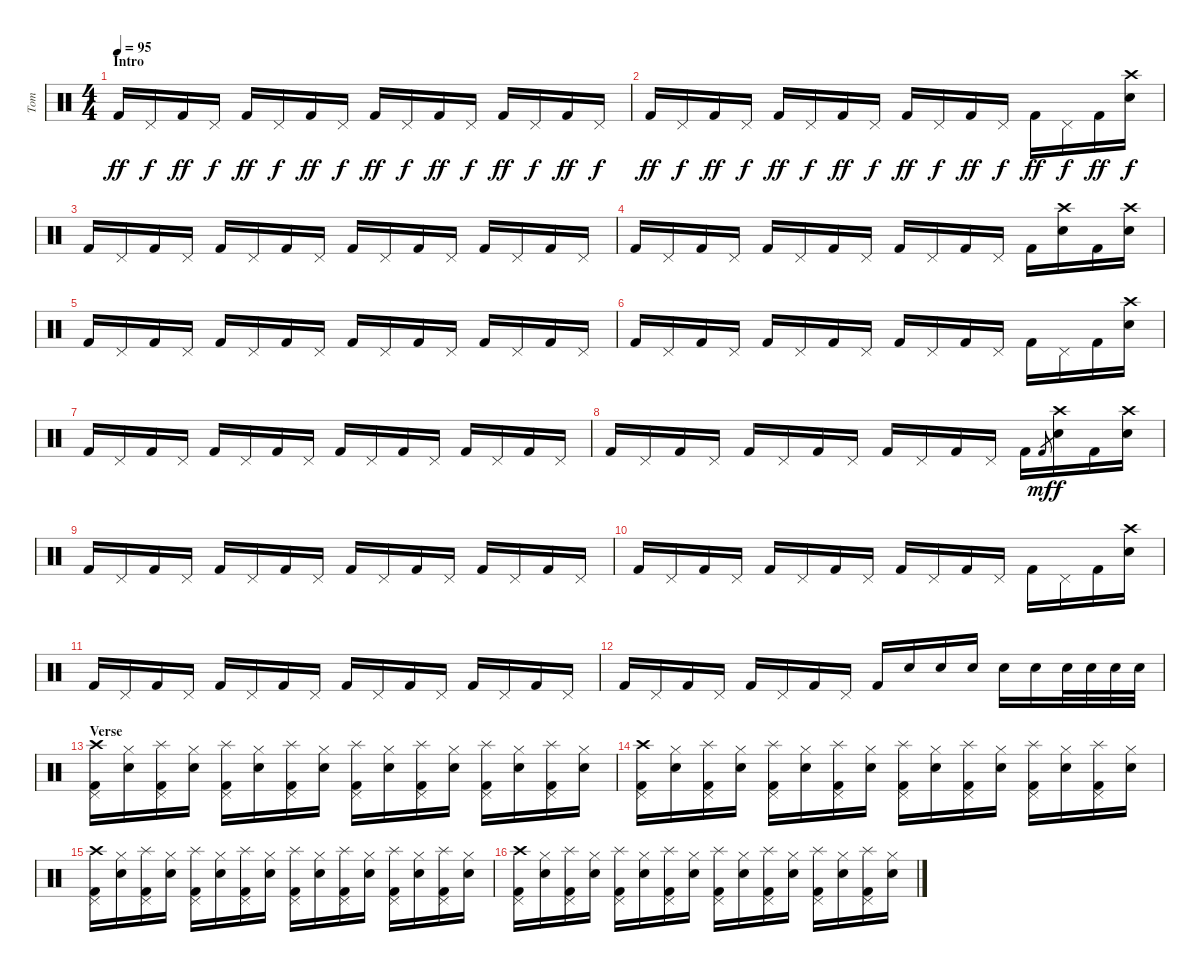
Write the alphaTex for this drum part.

\track ("Tom" "Tom") {instrument percussion}
\staff {score}
\articulation defaults
\ts (4 4)
\section ("" "Intro")
\tempo 95
\clef neutral
\ks c "Kick (hit) 2".16{dy ff} "Pedal Hi-Hat (hit)".16{dy f} "Kick (hit) 2".16{dy ff} "Pedal Hi-Hat (hit)".16{dy f} "Kick (hit) 2".16{dy ff} "Pedal Hi-Hat (hit)".16{dy f} "Kick (hit) 2".16{dy ff} "Pedal Hi-Hat (hit)".16{dy f} "Kick (hit) 2".16{dy ff} "Pedal Hi-Hat (hit)".16{dy f} "Kick (hit) 2".16{dy ff} "Pedal Hi-Hat (hit)".16{dy f} "Kick (hit) 2".16{dy ff} "Pedal Hi-Hat (hit)".16{dy f} "Kick (hit) 2".16{dy ff} "Pedal Hi-Hat (hit)".16{dy f}
|
"Kick (hit) 2".16{dy ff} "Pedal Hi-Hat (hit)".16{dy f} "Kick (hit) 2".16{dy ff} "Pedal Hi-Hat (hit)".16{dy f} "Kick (hit) 2".16{dy ff} "Pedal Hi-Hat (hit)".16{dy f} "Kick (hit) 2".16{dy ff} "Pedal Hi-Hat (hit)".16{dy f} "Kick (hit) 2".16{dy ff} "Pedal Hi-Hat (hit)".16{dy f} "Kick (hit) 2".16{dy ff} "Pedal Hi-Hat (hit)".16{dy f} "Kick (hit) 2".16{dy ff} "Pedal Hi-Hat (hit)".16{dy f} "Kick (hit) 2".16{dy ff} ("Crash high (hit)" "Electric Snare (hit)").16{dy f} |
"Kick (hit) 2".16 "Pedal Hi-Hat (hit)".16 "Kick (hit) 2".16 "Pedal Hi-Hat (hit)".16 "Kick (hit) 2".16 "Pedal Hi-Hat (hit)".16 "Kick (hit) 2".16 "Pedal Hi-Hat (hit)".16 "Kick (hit) 2".16 "Pedal Hi-Hat (hit)".16 "Kick (hit) 2".16 "Pedal Hi-Hat (hit)".16 "Kick (hit) 2".16 "Pedal Hi-Hat (hit)".16 "Kick (hit) 2".16 "Pedal Hi-Hat (hit)".16 |
"Kick (hit) 2".16 "Pedal Hi-Hat (hit)".16 "Kick (hit) 2".16 "Pedal Hi-Hat (hit)".16 "Kick (hit) 2".16 "Pedal Hi-Hat (hit)".16 "Kick (hit) 2".16 "Pedal Hi-Hat (hit)".16 "Kick (hit) 2".16 "Pedal Hi-Hat (hit)".16 "Kick (hit) 2".16 "Pedal Hi-Hat (hit)".16 "Kick (hit) 2".16 ("Crash high (hit)" "Electric Snare (hit)").16 "Kick (hit) 2".16 ("Crash high (hit)" "Electric Snare (hit)").16 |
"Kick (hit) 2".16 "Pedal Hi-Hat (hit)".16 "Kick (hit) 2".16 "Pedal Hi-Hat (hit)".16 "Kick (hit) 2".16 "Pedal Hi-Hat (hit)".16 "Kick (hit) 2".16 "Pedal Hi-Hat (hit)".16 "Kick (hit) 2".16 "Pedal Hi-Hat (hit)".16 "Kick (hit) 2".16 "Pedal Hi-Hat (hit)".16 "Kick (hit) 2".16 "Pedal Hi-Hat (hit)".16 "Kick (hit) 2".16 "Pedal Hi-Hat (hit)".16 |
"Kick (hit) 2".16 "Pedal Hi-Hat (hit)".16 "Kick (hit) 2".16 "Pedal Hi-Hat (hit)".16 "Kick (hit) 2".16 "Pedal Hi-Hat (hit)".16 "Kick (hit) 2".16 "Pedal Hi-Hat (hit)".16 "Kick (hit) 2".16 "Pedal Hi-Hat (hit)".16 "Kick (hit) 2".16 "Pedal Hi-Hat (hit)".16 "Kick (hit) 2".16 "Pedal Hi-Hat (hit)".16 "Kick (hit) 2".16 ("Crash high (hit)" "Electric Snare (hit)").16 |
"Kick (hit) 2".16 "Pedal Hi-Hat (hit)".16 "Kick (hit) 2".16 "Pedal Hi-Hat (hit)".16 "Kick (hit) 2".16 "Pedal Hi-Hat (hit)".16 "Kick (hit) 2".16 "Pedal Hi-Hat (hit)".16 "Kick (hit) 2".16 "Pedal Hi-Hat (hit)".16 "Kick (hit) 2".16 "Pedal Hi-Hat (hit)".16 "Kick (hit) 2".16 "Pedal Hi-Hat (hit)".16 "Kick (hit) 2".16 "Pedal Hi-Hat (hit)".16 |
"Kick (hit) 2".16 "Pedal Hi-Hat (hit)".16 "Kick (hit) 2".16 "Pedal Hi-Hat (hit)".16 "Kick (hit) 2".16 "Pedal Hi-Hat (hit)".16 "Kick (hit) 2".16 "Pedal Hi-Hat (hit)".16 "Kick (hit) 2".16 "Pedal Hi-Hat (hit)".16 "Kick (hit) 2".16 "Pedal Hi-Hat (hit)".16 "Kick (hit) 2".16 "Kick (hit) 2".8{gr dy mf} ("Crash high (hit)" "Electric Snare (hit)").16{dy f} "Kick (hit) 2".16 ("Crash high (hit)" "Electric Snare (hit)").16 |
"Kick (hit) 2".16 "Pedal Hi-Hat (hit)".16 "Kick (hit) 2".16 "Pedal Hi-Hat (hit)".16 "Kick (hit) 2".16 "Pedal Hi-Hat (hit)".16 "Kick (hit) 2".16 "Pedal Hi-Hat (hit)".16 "Kick (hit) 2".16 "Pedal Hi-Hat (hit)".16 "Kick (hit) 2".16 "Pedal Hi-Hat (hit)".16 "Kick (hit) 2".16 "Pedal Hi-Hat (hit)".16 "Kick (hit) 2".16 "Pedal Hi-Hat (hit)".16 |
"Kick (hit) 2".16 "Pedal Hi-Hat (hit)".16 "Kick (hit) 2".16 "Pedal Hi-Hat (hit)".16 "Kick (hit) 2".16 "Pedal Hi-Hat (hit)".16 "Kick (hit) 2".16 "Pedal Hi-Hat (hit)".16 "Kick (hit) 2".16 "Pedal Hi-Hat (hit)".16 "Kick (hit) 2".16 "Pedal Hi-Hat (hit)".16 "Kick (hit) 2".16 "Pedal Hi-Hat (hit)".16 "Kick (hit) 2".16 ("Crash high (hit)" "Electric Snare (hit)").16 |
"Kick (hit) 2".16 "Pedal Hi-Hat (hit)".16 "Kick (hit) 2".16 "Pedal Hi-Hat (hit)".16 "Kick (hit) 2".16 "Pedal Hi-Hat (hit)".16 "Kick (hit) 2".16 "Pedal Hi-Hat (hit)".16 "Kick (hit) 2".16 "Pedal Hi-Hat (hit)".16 "Kick (hit) 2".16 "Pedal Hi-Hat (hit)".16 "Kick (hit) 2".16 "Pedal Hi-Hat (hit)".16 "Kick (hit) 2".16 "Pedal Hi-Hat (hit)".16 |
"Kick (hit) 2".16 "Pedal Hi-Hat (hit)".16 "Kick (hit) 2".16 "Pedal Hi-Hat (hit)".16 "Kick (hit) 2".16 "Pedal Hi-Hat (hit)".16 "Kick (hit) 2".16 "Pedal Hi-Hat (hit)".16 "Kick (hit) 2".16 "Electric Snare (hit)".16 "Electric Snare (hit)".16 "Electric Snare (hit)".16 "Electric Snare (hit)".16 "Electric Snare (hit)".16 "Electric Snare (hit)".32 "Electric Snare (hit)".32 "Electric Snare (hit)".32 "Electric Snare (hit)".32 |
\section ("" "Verse")
("Crash high (hit)" "Pedal Hi-Hat (hit)" "Kick (hit) 2").16 ("Hi-Hat (closed)" "Electric Snare (hit)").16 ("Splash (hit)" "Pedal Hi-Hat (hit)" "Kick (hit) 2").16 ("Hi-Hat (closed)" "Electric Snare (hit)").16 ("Splash (hit)" "Pedal Hi-Hat (hit)" "Kick (hit) 2").16 ("Hi-Hat (closed)" "Electric Snare (hit)").16 ("Splash (hit)" "Pedal Hi-Hat (hit)" "Kick (hit) 2").16 ("Hi-Hat (closed)" "Electric Snare (hit)").16 ("Splash (hit)" "Pedal Hi-Hat (hit)" "Kick (hit) 2").16 ("Hi-Hat (closed)" "Electric Snare (hit)").16 ("Splash (hit)" "Pedal Hi-Hat (hit)" "Kick (hit) 2").16 ("Hi-Hat (closed)" "Electric Snare (hit)").16 ("Splash (hit)" "Pedal Hi-Hat (hit)" "Kick (hit) 2").16 ("Hi-Hat (closed)" "Electric Snare (hit)").16 ("Splash (hit)" "Pedal Hi-Hat (hit)" "Kick (hit) 2").16 ("Hi-Hat (closed)" "Electric Snare (hit)").16 |
("Crash high (hit)" "Pedal Hi-Hat (hit)" "Kick (hit) 2").16 ("Hi-Hat (closed)" "Electric Snare (hit)").16 ("Splash (hit)" "Pedal Hi-Hat (hit)" "Kick (hit) 2").16 ("Hi-Hat (closed)" "Electric Snare (hit)").16 ("Splash (hit)" "Pedal Hi-Hat (hit)" "Kick (hit) 2").16 ("Hi-Hat (closed)" "Electric Snare (hit)").16 ("Splash (hit)" "Pedal Hi-Hat (hit)" "Kick (hit) 2").16 ("Hi-Hat (closed)" "Electric Snare (hit)").16 ("Splash (hit)" "Pedal Hi-Hat (hit)" "Kick (hit) 2").16 ("Hi-Hat (closed)" "Electric Snare (hit)").16 ("Splash (hit)" "Pedal Hi-Hat (hit)" "Kick (hit) 2").16 ("Hi-Hat (closed)" "Electric Snare (hit)").16 ("Splash (hit)" "Pedal Hi-Hat (hit)" "Kick (hit) 2").16 ("Hi-Hat (closed)" "Electric Snare (hit)").16 ("Splash (hit)" "Pedal Hi-Hat (hit)" "Kick (hit) 2").16 ("Hi-Hat (closed)" "Electric Snare (hit)").16 |
("Crash high (hit)" "Pedal Hi-Hat (hit)" "Kick (hit) 2").16 ("Hi-Hat (closed)" "Electric Snare (hit)").16 ("Splash (hit)" "Pedal Hi-Hat (hit)" "Kick (hit) 2").16 ("Hi-Hat (closed)" "Electric Snare (hit)").16 ("Splash (hit)" "Pedal Hi-Hat (hit)" "Kick (hit) 2").16 ("Hi-Hat (closed)" "Electric Snare (hit)").16 ("Splash (hit)" "Pedal Hi-Hat (hit)" "Kick (hit) 2").16 ("Hi-Hat (closed)" "Electric Snare (hit)").16 ("Splash (hit)" "Pedal Hi-Hat (hit)" "Kick (hit) 2").16 ("Hi-Hat (closed)" "Electric Snare (hit)").16 ("Splash (hit)" "Pedal Hi-Hat (hit)" "Kick (hit) 2").16 ("Hi-Hat (closed)" "Electric Snare (hit)").16 ("Splash (hit)" "Pedal Hi-Hat (hit)" "Kick (hit) 2").16 ("Hi-Hat (closed)" "Electric Snare (hit)").16 ("Splash (hit)" "Pedal Hi-Hat (hit)" "Kick (hit) 2").16 ("Hi-Hat (closed)" "Electric Snare (hit)").16 |
("Crash high (hit)" "Pedal Hi-Hat (hit)" "Kick (hit) 2").16 ("Hi-Hat (closed)" "Electric Snare (hit)").16 ("Splash (hit)" "Pedal Hi-Hat (hit)" "Kick (hit) 2").16 ("Hi-Hat (closed)" "Electric Snare (hit)").16 ("Splash (hit)" "Pedal Hi-Hat (hit)" "Kick (hit) 2").16 ("Hi-Hat (closed)" "Electric Snare (hit)").16 ("Splash (hit)" "Pedal Hi-Hat (hit)" "Kick (hit) 2").16 ("Hi-Hat (closed)" "Electric Snare (hit)").16 ("Splash (hit)" "Pedal Hi-Hat (hit)" "Kick (hit) 2").16 ("Hi-Hat (closed)" "Electric Snare (hit)").16 ("Splash (hit)" "Pedal Hi-Hat (hit)" "Kick (hit) 2").16 ("Hi-Hat (closed)" "Electric Snare (hit)").16 ("Splash (hit)" "Pedal Hi-Hat (hit)" "Kick (hit) 2").16 ("Hi-Hat (closed)" "Electric Snare (hit)").16 ("Splash (hit)" "Pedal Hi-Hat (hit)" "Kick (hit) 2").16 ("Hi-Hat (closed)" "Electric Snare (hit)").16
